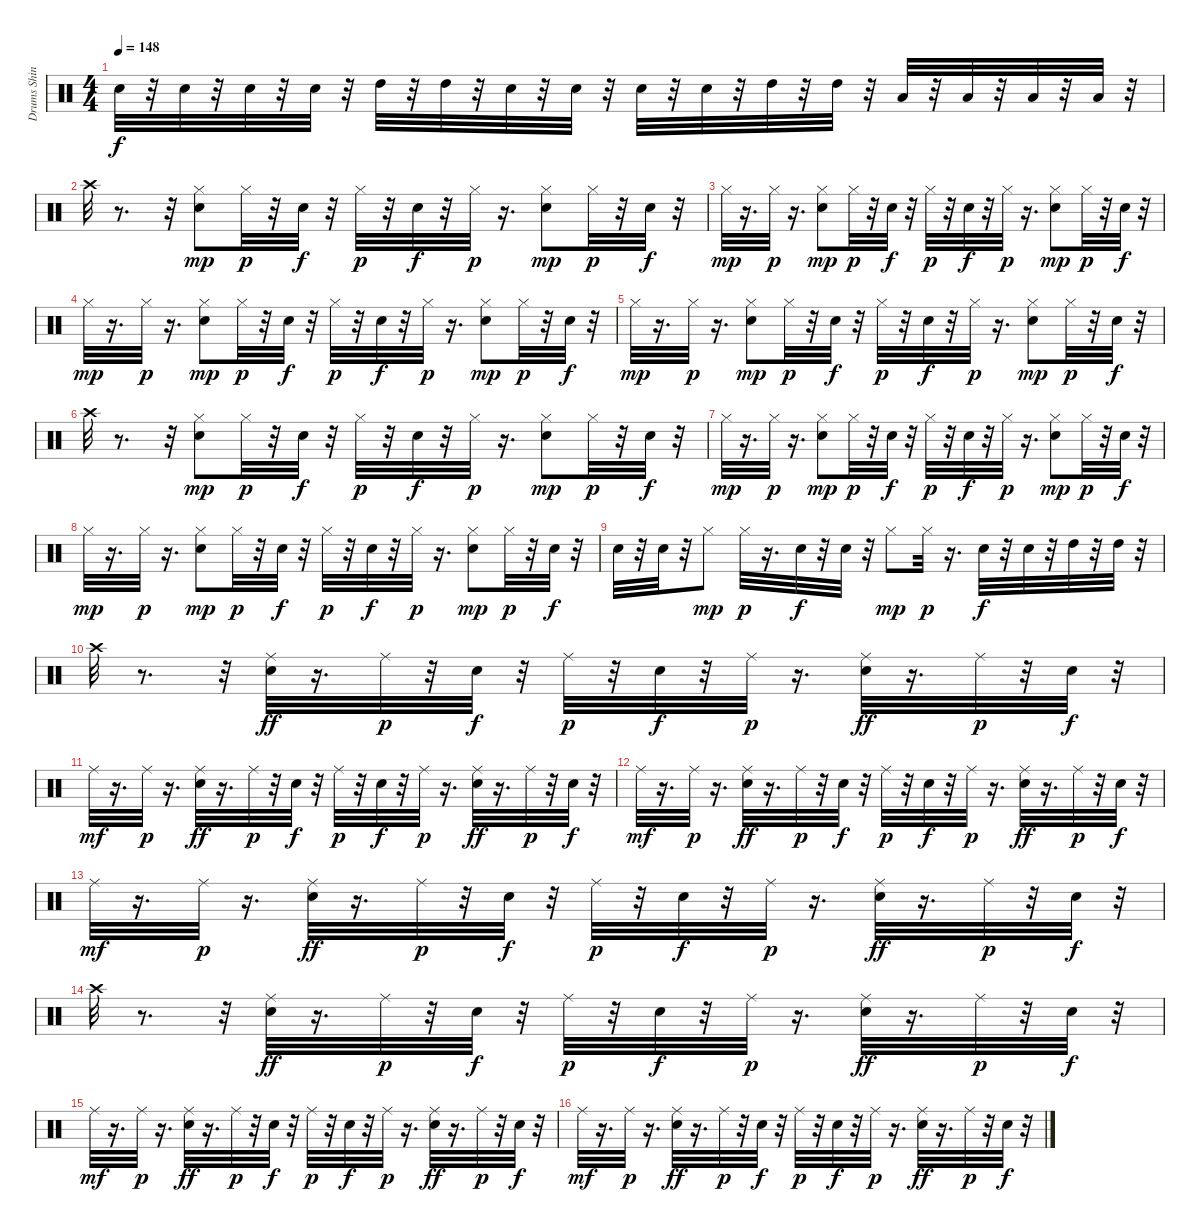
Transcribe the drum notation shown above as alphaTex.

\track ("Drums Shinya         " "Drums Shin") {instrument percussion}
\staff {score}
\articulation defaults
\ts (4 4)
\tempo 148
\clef neutral
\ks c "Electric Snare (hit)".32{dy f}
r.32 "Electric Snare (hit)".32 r.32 "Electric Snare (hit)".32 r.32 "Electric Snare (hit)".32 r.32 "High Tom (hit)".32 r.32 "High Tom (hit)".32 r.32 "Electric Snare (hit)".32 r.32 "Electric Snare (hit)".32 r.32 "Electric Snare (hit)".32 r.32 "Electric Snare (hit)".32 r.32 "High Tom (hit)".32 r.32 "High Tom (hit)".32 r.32 "Low Tom (hit)".32 r.32 "Low Tom (hit)".32 r.32 "Low Floor Tom (hit)".32 r.32 "Low Floor Tom (hit)".32 r.32 |
"Crash high (hit)".32 r.8{d} r.32 ("Electric Snare (hit)" "Hi-Hat (closed)").8{dy mp} "Hi-Hat (closed)".32{dy p} r.32 "Electric Snare (hit)".32{dy f} r.32 "Hi-Hat (closed)".32{dy p} r.32 "Electric Snare (hit)".32{dy f} r.32 "Hi-Hat (closed)".32{dy p} r.16{d} ("Electric Snare (hit)" "Hi-Hat (closed)").8{dy mp} "Hi-Hat (closed)".32{dy p} r.32 "Electric Snare (hit)".32{dy f} r.32 |
"Hi-Hat (closed)".32{dy mp} r.16{d} "Hi-Hat (closed)".32{dy p} r.16{d} ("Electric Snare (hit)" "Hi-Hat (closed)").8{dy mp} "Hi-Hat (closed)".32{dy p} r.32 "Electric Snare (hit)".32{dy f} r.32 "Hi-Hat (closed)".32{dy p} r.32 "Electric Snare (hit)".32{dy f} r.32 "Hi-Hat (closed)".32{dy p} r.16{d} ("Electric Snare (hit)" "Hi-Hat (closed)").8{dy mp} "Hi-Hat (closed)".32{dy p} r.32 "Electric Snare (hit)".32{dy f} r.32 |
"Hi-Hat (closed)".32{dy mp} r.16{d} "Hi-Hat (closed)".32{dy p} r.16{d} ("Electric Snare (hit)" "Hi-Hat (closed)").8{dy mp} "Hi-Hat (closed)".32{dy p} r.32 "Electric Snare (hit)".32{dy f} r.32 "Hi-Hat (closed)".32{dy p} r.32 "Electric Snare (hit)".32{dy f} r.32 "Hi-Hat (closed)".32{dy p} r.16{d} ("Electric Snare (hit)" "Hi-Hat (closed)").8{dy mp} "Hi-Hat (closed)".32{dy p} r.32 "Electric Snare (hit)".32{dy f} r.32 |
"Hi-Hat (closed)".32{dy mp} r.16{d} "Hi-Hat (closed)".32{dy p} r.16{d} ("Electric Snare (hit)" "Hi-Hat (closed)").8{dy mp} "Hi-Hat (closed)".32{dy p} r.32 "Electric Snare (hit)".32{dy f} r.32 "Hi-Hat (closed)".32{dy p} r.32 "Electric Snare (hit)".32{dy f} r.32 "Hi-Hat (closed)".32{dy p} r.16{d} ("Electric Snare (hit)" "Hi-Hat (closed)").8{dy mp} "Hi-Hat (closed)".32{dy p} r.32 "Electric Snare (hit)".32{dy f} r.32 |
"Crash high (hit)".32 r.8{d} r.32 ("Electric Snare (hit)" "Hi-Hat (closed)").8{dy mp} "Hi-Hat (closed)".32{dy p} r.32 "Electric Snare (hit)".32{dy f} r.32 "Hi-Hat (closed)".32{dy p} r.32 "Electric Snare (hit)".32{dy f} r.32 "Hi-Hat (closed)".32{dy p} r.16{d} ("Electric Snare (hit)" "Hi-Hat (closed)").8{dy mp} "Hi-Hat (closed)".32{dy p} r.32 "Electric Snare (hit)".32{dy f} r.32 |
"Hi-Hat (closed)".32{dy mp} r.16{d} "Hi-Hat (closed)".32{dy p} r.16{d} ("Electric Snare (hit)" "Hi-Hat (closed)").8{dy mp} "Hi-Hat (closed)".32{dy p} r.32 "Electric Snare (hit)".32{dy f} r.32 "Hi-Hat (closed)".32{dy p} r.32 "Electric Snare (hit)".32{dy f} r.32 "Hi-Hat (closed)".32{dy p} r.16{d} ("Electric Snare (hit)" "Hi-Hat (closed)").8{dy mp} "Hi-Hat (closed)".32{dy p} r.32 "Electric Snare (hit)".32{dy f} r.32 |
"Hi-Hat (closed)".32{dy mp} r.16{d} "Hi-Hat (closed)".32{dy p} r.16{d} ("Electric Snare (hit)" "Hi-Hat (closed)").8{dy mp} "Hi-Hat (closed)".32{dy p} r.32 "Electric Snare (hit)".32{dy f} r.32 "Hi-Hat (closed)".32{dy p} r.32 "Electric Snare (hit)".32{dy f} r.32 "Hi-Hat (closed)".32{dy p} r.16{d} ("Electric Snare (hit)" "Hi-Hat (closed)").8{dy mp} "Hi-Hat (closed)".32{dy p} r.32 "Electric Snare (hit)".32{dy f} r.32 |
"Electric Snare (hit)".32 r.32 "Electric Snare (hit)".32 r.32 "Hi-Hat (closed)".8{dy mp} "Hi-Hat (closed)".32{dy p} r.16{d} "Electric Snare (hit)".32{dy f} r.32 "Electric Snare (hit)".32 r.32 "Hi-Hat (closed)".8{dy mp} "Hi-Hat (closed)".32{dy p} r.16{d} "Electric Snare (hit)".32{dy f} r.32 "Electric Snare (hit)".32 r.32 "High Tom (hit)".32 r.32 "High Tom (hit)".32 r.32 |
"Crash high (hit)".32 r.8{d} r.32 ("Ride (middle)" "Electric Snare (hit)").32{dy ff} r.16{d} "Ride (middle)".32{dy p} r.32 "Electric Snare (hit)".32{dy f} r.32 "Ride (middle)".32{dy p} r.32 "Electric Snare (hit)".32{dy f} r.32 "Ride (middle)".32{dy p} r.16{d} ("Ride (middle)" "Electric Snare (hit)").32{dy ff} r.16{d} "Ride (middle)".32{dy p} r.32 "Electric Snare (hit)".32{dy f} r.32 |
"Ride (middle)".32{dy mf} r.16{d} "Ride (middle)".32{dy p} r.16{d} ("Ride (middle)" "Electric Snare (hit)").32{dy ff} r.16{d} "Ride (middle)".32{dy p} r.32 "Electric Snare (hit)".32{dy f} r.32 "Ride (middle)".32{dy p} r.32 "Electric Snare (hit)".32{dy f} r.32 "Ride (middle)".32{dy p} r.16{d} ("Ride (middle)" "Electric Snare (hit)").32{dy ff} r.16{d} "Ride (middle)".32{dy p} r.32 "Electric Snare (hit)".32{dy f} r.32 |
"Ride (middle)".32{dy mf} r.16{d} "Ride (middle)".32{dy p} r.16{d} ("Ride (middle)" "Electric Snare (hit)").32{dy ff} r.16{d} "Ride (middle)".32{dy p} r.32 "Electric Snare (hit)".32{dy f} r.32 "Ride (middle)".32{dy p} r.32 "Electric Snare (hit)".32{dy f} r.32 "Ride (middle)".32{dy p} r.16{d} ("Ride (middle)" "Electric Snare (hit)").32{dy ff} r.16{d} "Ride (middle)".32{dy p} r.32 "Electric Snare (hit)".32{dy f} r.32 |
"Ride (middle)".32{dy mf} r.16{d} "Ride (middle)".32{dy p} r.16{d} ("Ride (middle)" "Electric Snare (hit)").32{dy ff} r.16{d} "Ride (middle)".32{dy p} r.32 "Electric Snare (hit)".32{dy f} r.32 "Ride (middle)".32{dy p} r.32 "Electric Snare (hit)".32{dy f} r.32 "Ride (middle)".32{dy p} r.16{d} ("Ride (middle)" "Electric Snare (hit)").32{dy ff} r.16{d} "Ride (middle)".32{dy p} r.32 "Electric Snare (hit)".32{dy f} r.32 |
"Crash high (hit)".32 r.8{d} r.32 ("Ride (middle)" "Electric Snare (hit)").32{dy ff} r.16{d} "Ride (middle)".32{dy p} r.32 "Electric Snare (hit)".32{dy f} r.32 "Ride (middle)".32{dy p} r.32 "Electric Snare (hit)".32{dy f} r.32 "Ride (middle)".32{dy p} r.16{d} ("Ride (middle)" "Electric Snare (hit)").32{dy ff} r.16{d} "Ride (middle)".32{dy p} r.32 "Electric Snare (hit)".32{dy f} r.32 |
"Ride (middle)".32{dy mf} r.16{d} "Ride (middle)".32{dy p} r.16{d} ("Ride (middle)" "Electric Snare (hit)").32{dy ff} r.16{d} "Ride (middle)".32{dy p} r.32 "Electric Snare (hit)".32{dy f} r.32 "Ride (middle)".32{dy p} r.32 "Electric Snare (hit)".32{dy f} r.32 "Ride (middle)".32{dy p} r.16{d} ("Ride (middle)" "Electric Snare (hit)").32{dy ff} r.16{d} "Ride (middle)".32{dy p} r.32 "Electric Snare (hit)".32{dy f} r.32 |
"Ride (middle)".32{dy mf} r.16{d} "Ride (middle)".32{dy p} r.16{d} ("Ride (middle)" "Electric Snare (hit)").32{dy ff} r.16{d} "Ride (middle)".32{dy p} r.32 "Electric Snare (hit)".32{dy f} r.32 "Ride (middle)".32{dy p} r.32 "Electric Snare (hit)".32{dy f} r.32 "Ride (middle)".32{dy p} r.16{d} ("Ride (middle)" "Electric Snare (hit)").32{dy ff} r.16{d} "Ride (middle)".32{dy p} r.32 "Electric Snare (hit)".32{dy f} r.32
